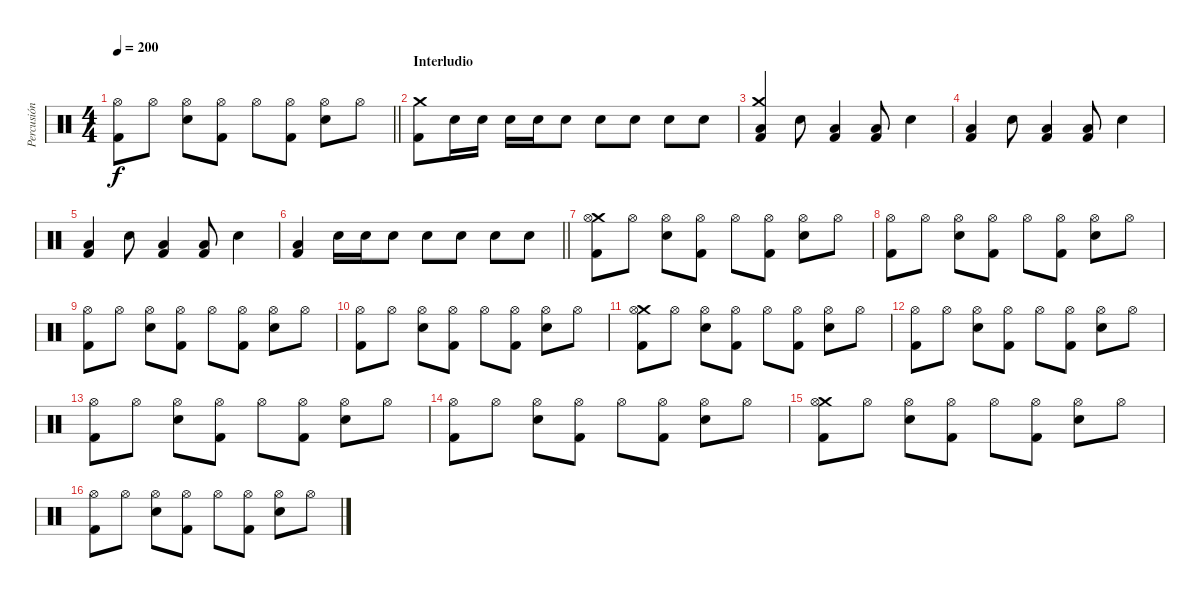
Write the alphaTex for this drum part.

\track ("Percusión" "Percusión") {instrument percussion}
\staff {score}
\articulation defaults
\ts (4 4)
\tempo 200
\clef neutral
\barLineRight lightlight
\ks c
("Hi-Hat (open)" "Kick (hit) 2").8{dy f} "Hi-Hat (open)".8 ("Hi-Hat (open)" "Snare (hit) 2").8 ("Hi-Hat (open)" "Kick (hit) 2").8 "Hi-Hat (open)".8 ("Hi-Hat (open)" "Kick (hit) 2").8 ("Hi-Hat (open)" "Snare (hit) 2").8 "Hi-Hat (open)".8 |
\section ("" "Interludio")
("Crash medium (hit)" "Kick (hit) 2").8 "Snare (hit) 2".16 "Snare (hit) 2".16 "Snare (hit) 2".16 "Snare (hit) 2".16 "Snare (hit) 2".8 "Snare (hit) 2".8 "Snare (hit) 2".8 "Snare (hit) 2".8 "Snare (hit) 2".8 |
("Crash medium (hit)" "Low Floor Tom (hit)" "Kick (hit) 2").4 "Snare (hit) 2".8 ("Low Floor Tom (hit)" "Kick (hit) 2").4 ("Low Floor Tom (hit)" "Kick (hit) 2").8 "Snare (hit) 2".4 |
("Low Floor Tom (hit)" "Kick (hit) 2").4 "Snare (hit) 2".8 ("Low Floor Tom (hit)" "Kick (hit) 2").4 ("Low Floor Tom (hit)" "Kick (hit) 2").8 "Snare (hit) 2".4 |
("Low Floor Tom (hit)" "Kick (hit) 2").4 "Snare (hit) 2".8 ("Low Floor Tom (hit)" "Kick (hit) 2").4 ("Low Floor Tom (hit)" "Kick (hit) 2").8 "Snare (hit) 2".4 |
\barLineRight lightlight
("Low Floor Tom (hit)" "Kick (hit) 2").4 "Snare (hit) 2".16 "Snare (hit) 2".16 "Snare (hit) 2".8 "Snare (hit) 2".8 "Snare (hit) 2".8 "Snare (hit) 2".8 "Snare (hit) 2".8 |
("Crash medium (hit)" "Hi-Hat (open)" "Kick (hit) 2").8 "Hi-Hat (open)".8 ("Hi-Hat (open)" "Snare (hit) 2").8 ("Hi-Hat (open)" "Kick (hit) 2").8 "Hi-Hat (open)".8 ("Hi-Hat (open)" "Kick (hit) 2").8 ("Hi-Hat (open)" "Snare (hit) 2").8 "Hi-Hat (open)".8 |
("Hi-Hat (open)" "Kick (hit) 2").8 "Hi-Hat (open)".8 ("Hi-Hat (open)" "Snare (hit) 2").8 ("Hi-Hat (open)" "Kick (hit) 2").8 "Hi-Hat (open)".8 ("Hi-Hat (open)" "Kick (hit) 2").8 ("Hi-Hat (open)" "Snare (hit) 2").8 "Hi-Hat (open)".8 |
("Hi-Hat (open)" "Kick (hit) 2").8 "Hi-Hat (open)".8 ("Hi-Hat (open)" "Snare (hit) 2").8 ("Hi-Hat (open)" "Kick (hit) 2").8 "Hi-Hat (open)".8 ("Hi-Hat (open)" "Kick (hit) 2").8 ("Hi-Hat (open)" "Snare (hit) 2").8 "Hi-Hat (open)".8 |
("Hi-Hat (open)" "Kick (hit) 2").8 "Hi-Hat (open)".8 ("Hi-Hat (open)" "Snare (hit) 2").8 ("Hi-Hat (open)" "Kick (hit) 2").8 "Hi-Hat (open)".8 ("Hi-Hat (open)" "Kick (hit) 2").8 ("Hi-Hat (open)" "Snare (hit) 2").8 "Hi-Hat (open)".8 |
("Crash medium (hit)" "Hi-Hat (open)" "Kick (hit) 2").8 "Hi-Hat (open)".8 ("Hi-Hat (open)" "Snare (hit) 2").8 ("Hi-Hat (open)" "Kick (hit) 2").8 "Hi-Hat (open)".8 ("Hi-Hat (open)" "Kick (hit) 2").8 ("Hi-Hat (open)" "Snare (hit) 2").8 "Hi-Hat (open)".8 |
("Hi-Hat (open)" "Kick (hit) 2").8 "Hi-Hat (open)".8 ("Hi-Hat (open)" "Snare (hit) 2").8 ("Hi-Hat (open)" "Kick (hit) 2").8 "Hi-Hat (open)".8 ("Hi-Hat (open)" "Kick (hit) 2").8 ("Hi-Hat (open)" "Snare (hit) 2").8 "Hi-Hat (open)".8 |
("Hi-Hat (open)" "Kick (hit) 2").8 "Hi-Hat (open)".8 ("Hi-Hat (open)" "Snare (hit) 2").8 ("Hi-Hat (open)" "Kick (hit) 2").8 "Hi-Hat (open)".8 ("Hi-Hat (open)" "Kick (hit) 2").8 ("Hi-Hat (open)" "Snare (hit) 2").8 "Hi-Hat (open)".8 |
("Hi-Hat (open)" "Kick (hit) 2").8 "Hi-Hat (open)".8 ("Hi-Hat (open)" "Snare (hit) 2").8 ("Hi-Hat (open)" "Kick (hit) 2").8 "Hi-Hat (open)".8 ("Hi-Hat (open)" "Kick (hit) 2").8 ("Hi-Hat (open)" "Snare (hit) 2").8 "Hi-Hat (open)".8 |
("Crash medium (hit)" "Hi-Hat (open)" "Kick (hit) 2").8 "Hi-Hat (open)".8 ("Hi-Hat (open)" "Snare (hit) 2").8 ("Hi-Hat (open)" "Kick (hit) 2").8 "Hi-Hat (open)".8 ("Hi-Hat (open)" "Kick (hit) 2").8 ("Hi-Hat (open)" "Snare (hit) 2").8 "Hi-Hat (open)".8 |
("Hi-Hat (open)" "Kick (hit) 2").8 "Hi-Hat (open)".8 ("Hi-Hat (open)" "Snare (hit) 2").8 ("Hi-Hat (open)" "Kick (hit) 2").8 "Hi-Hat (open)".8 ("Hi-Hat (open)" "Kick (hit) 2").8 ("Hi-Hat (open)" "Snare (hit) 2").8 "Hi-Hat (open)".8
